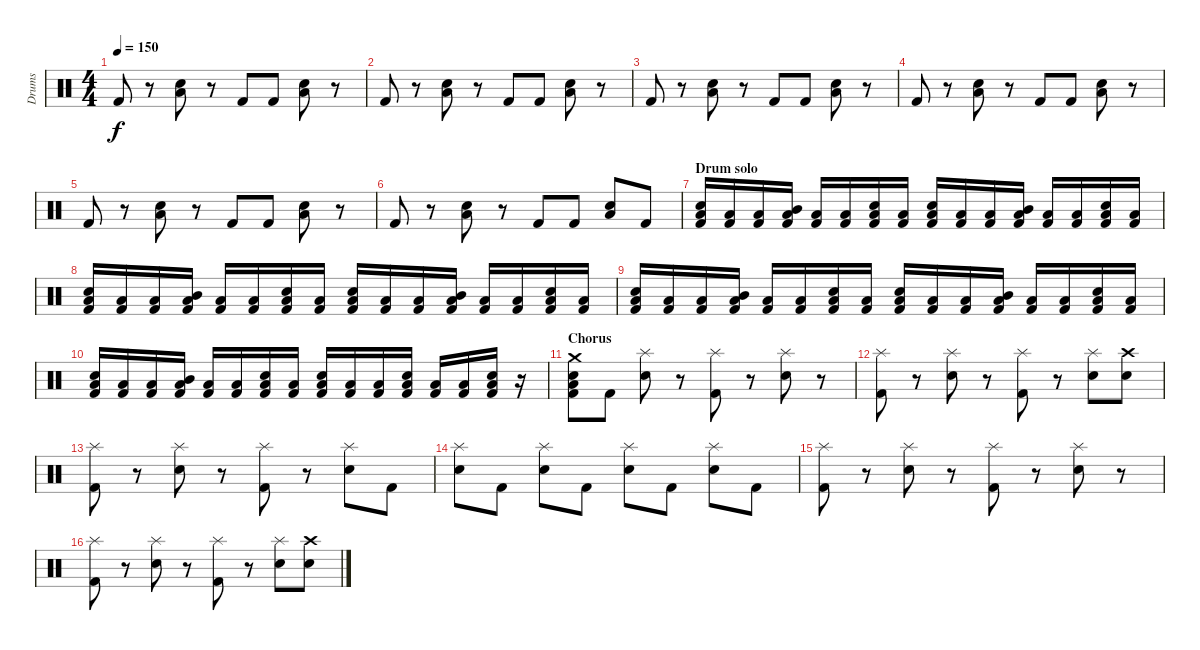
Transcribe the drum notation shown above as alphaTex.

\track ("Drums" "Drums") {instrument percussion}
\staff {score}
\articulation defaults
\ts (4 4)
\tempo 150
\clef neutral
\ks c "Kick (hit) 2".8{dy f}
r.8 ("Low Floor Tom (hit)" "Electric Snare (hit)").8 r.8 "Kick (hit) 2".8 "Kick (hit) 2".8 ("Low Floor Tom (hit)" "Electric Snare (hit)").8 r.8 |
"Kick (hit) 2".8 r.8 ("Low Floor Tom (hit)" "Electric Snare (hit)").8 r.8 "Kick (hit) 2".8 "Kick (hit) 2".8 ("Low Floor Tom (hit)" "Electric Snare (hit)").8 r.8 |
"Kick (hit) 2".8 r.8 ("Low Floor Tom (hit)" "Electric Snare (hit)").8 r.8 "Kick (hit) 2".8 "Kick (hit) 2".8 ("Low Floor Tom (hit)" "Electric Snare (hit)").8 r.8 |
"Kick (hit) 2".8 r.8 ("Low Floor Tom (hit)" "Electric Snare (hit)").8 r.8 "Kick (hit) 2".8 "Kick (hit) 2".8 ("Low Floor Tom (hit)" "Electric Snare (hit)").8 r.8 |
"Kick (hit) 2".8 r.8 ("Low Floor Tom (hit)" "Electric Snare (hit)").8 r.8 "Kick (hit) 2".8 "Kick (hit) 2".8 ("Low Floor Tom (hit)" "Electric Snare (hit)").8 r.8 |
"Kick (hit) 2".8 r.8 ("Low Floor Tom (hit)" "Electric Snare (hit)").8 r.8 "Kick (hit) 2".8 "Kick (hit) 2".8 ("Low Floor Tom (hit)" "Electric Snare (hit)").8 "Kick (hit) 2".8 |
\section ("" "Drum solo")
("Electric Snare (hit)" "Low Floor Tom (hit)" "Kick (hit) 2").16 ("Low Floor Tom (hit)" "Kick (hit) 2").16 ("Low Floor Tom (hit)" "Kick (hit) 2").16 ("Mid Tom (hit)" "Low Floor Tom (hit)" "Kick (hit) 2").16 ("Low Floor Tom (hit)" "Kick (hit) 2").16 ("Low Floor Tom (hit)" "Kick (hit) 2").16 ("Electric Snare (hit)" "Low Floor Tom (hit)" "Kick (hit) 2").16 ("Low Floor Tom (hit)" "Kick (hit) 2").16 ("Electric Snare (hit)" "Low Floor Tom (hit)" "Kick (hit) 2").16 ("Low Floor Tom (hit)" "Kick (hit) 2").16 ("Low Floor Tom (hit)" "Kick (hit) 2").16 ("Mid Tom (hit)" "Low Floor Tom (hit)" "Kick (hit) 2").16 ("Low Floor Tom (hit)" "Kick (hit) 2").16 ("Low Floor Tom (hit)" "Kick (hit) 2").16 ("Electric Snare (hit)" "Low Floor Tom (hit)" "Kick (hit) 2").16 ("Low Floor Tom (hit)" "Kick (hit) 2").16 |
("Electric Snare (hit)" "Low Floor Tom (hit)" "Kick (hit) 2").16 ("Low Floor Tom (hit)" "Kick (hit) 2").16 ("Low Floor Tom (hit)" "Kick (hit) 2").16 ("Mid Tom (hit)" "Low Floor Tom (hit)" "Kick (hit) 2").16 ("Low Floor Tom (hit)" "Kick (hit) 2").16 ("Low Floor Tom (hit)" "Kick (hit) 2").16 ("Electric Snare (hit)" "Low Floor Tom (hit)" "Kick (hit) 2").16 ("Low Floor Tom (hit)" "Kick (hit) 2").16 ("Electric Snare (hit)" "Low Floor Tom (hit)" "Kick (hit) 2").16 ("Low Floor Tom (hit)" "Kick (hit) 2").16 ("Low Floor Tom (hit)" "Kick (hit) 2").16 ("Mid Tom (hit)" "Low Floor Tom (hit)" "Kick (hit) 2").16 ("Low Floor Tom (hit)" "Kick (hit) 2").16 ("Low Floor Tom (hit)" "Kick (hit) 2").16 ("Electric Snare (hit)" "Low Floor Tom (hit)" "Kick (hit) 2").16 ("Low Floor Tom (hit)" "Kick (hit) 2").16 |
("Electric Snare (hit)" "Low Floor Tom (hit)" "Kick (hit) 2").16 ("Low Floor Tom (hit)" "Kick (hit) 2").16 ("Low Floor Tom (hit)" "Kick (hit) 2").16 ("Mid Tom (hit)" "Low Floor Tom (hit)" "Kick (hit) 2").16 ("Low Floor Tom (hit)" "Kick (hit) 2").16 ("Low Floor Tom (hit)" "Kick (hit) 2").16 ("Electric Snare (hit)" "Low Floor Tom (hit)" "Kick (hit) 2").16 ("Low Floor Tom (hit)" "Kick (hit) 2").16 ("Electric Snare (hit)" "Low Floor Tom (hit)" "Kick (hit) 2").16 ("Low Floor Tom (hit)" "Kick (hit) 2").16 ("Low Floor Tom (hit)" "Kick (hit) 2").16 ("Mid Tom (hit)" "Low Floor Tom (hit)" "Kick (hit) 2").16 ("Low Floor Tom (hit)" "Kick (hit) 2").16 ("Low Floor Tom (hit)" "Kick (hit) 2").16 ("Electric Snare (hit)" "Low Floor Tom (hit)" "Kick (hit) 2").16 ("Low Floor Tom (hit)" "Kick (hit) 2").16 |
("Electric Snare (hit)" "Low Floor Tom (hit)" "Kick (hit) 2").16 ("Low Floor Tom (hit)" "Kick (hit) 2").16 ("Low Floor Tom (hit)" "Kick (hit) 2").16 ("Mid Tom (hit)" "Low Floor Tom (hit)" "Kick (hit) 2").16 ("Low Floor Tom (hit)" "Kick (hit) 2").16 ("Low Floor Tom (hit)" "Kick (hit) 2").16 ("Electric Snare (hit)" "Low Floor Tom (hit)" "Kick (hit) 2").16 ("Low Floor Tom (hit)" "Kick (hit) 2").16 ("Electric Snare (hit)" "Low Floor Tom (hit)" "Kick (hit) 2").16 ("Low Floor Tom (hit)" "Kick (hit) 2").16 ("Low Floor Tom (hit)" "Kick (hit) 2").16 ("Electric Snare (hit)" "Low Floor Tom (hit)" "Kick (hit) 2").16 ("Low Floor Tom (hit)" "Kick (hit) 2").16 ("Low Floor Tom (hit)" "Kick (hit) 2").16 ("Electric Snare (hit)" "Low Floor Tom (hit)" "Kick (hit) 2").16 r.16 |
\section ("" "Chorus")
("Crash medium (hit)" "Electric Snare (hit)" "Low Floor Tom (hit)" "Kick (hit) 2").8 "Kick (hit) 2".8 ("Splash (hit)" "Electric Snare (hit)").8 r.8 ("Splash (hit)" "Kick (hit) 2").8 r.8 ("Splash (hit)" "Electric Snare (hit)").8 r.8 |
("Splash (hit)" "Kick (hit) 2").8 r.8 ("Splash (hit)" "Electric Snare (hit)").8 r.8 ("Splash (hit)" "Kick (hit) 2").8 r.8 ("Splash (hit)" "Electric Snare (hit)").8 ("Crash high (hit)" "Electric Snare (hit)").8 |
("Splash (hit)" "Kick (hit) 2").8 r.8 ("Splash (hit)" "Electric Snare (hit)").8 r.8 ("Splash (hit)" "Kick (hit) 2").8 r.8 ("Splash (hit)" "Electric Snare (hit)").8 "Kick (hit) 2".8 |
("Splash (hit)" "Electric Snare (hit)").8 "Kick (hit) 2".8 ("Splash (hit)" "Electric Snare (hit)").8 "Kick (hit) 2".8 ("Splash (hit)" "Electric Snare (hit)").8 "Kick (hit) 2".8 ("Splash (hit)" "Electric Snare (hit)").8 "Kick (hit) 2".8 |
("Splash (hit)" "Kick (hit) 2").8 r.8 ("Splash (hit)" "Electric Snare (hit)").8 r.8 ("Splash (hit)" "Kick (hit) 2").8 r.8 ("Splash (hit)" "Electric Snare (hit)").8 r.8 |
("Splash (hit)" "Kick (hit) 2").8 r.8 ("Splash (hit)" "Electric Snare (hit)").8 r.8 ("Splash (hit)" "Kick (hit) 2").8 r.8 ("Splash (hit)" "Electric Snare (hit)").8 ("Crash high (hit)" "Electric Snare (hit)").8
